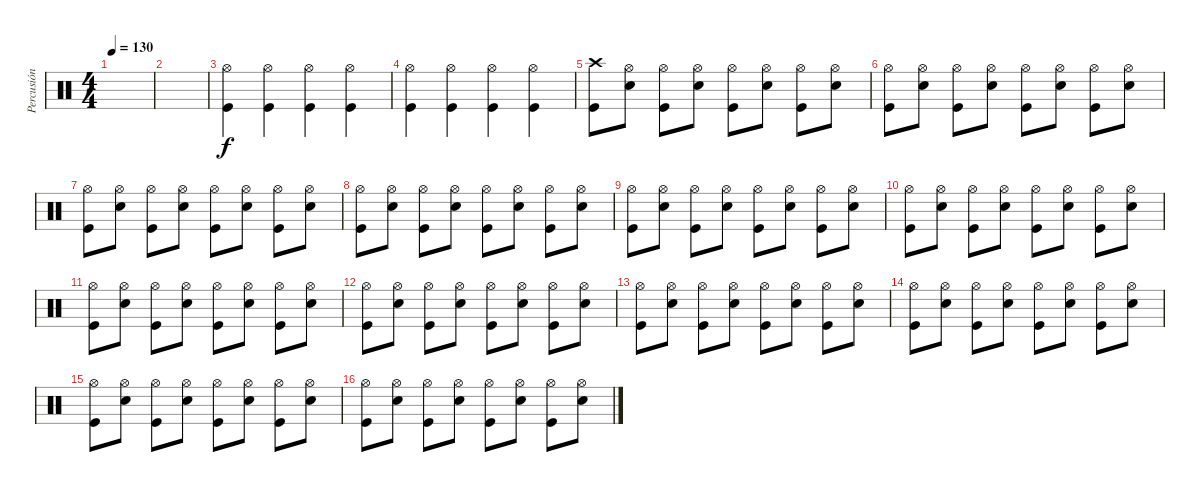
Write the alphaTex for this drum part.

\track ("Percusión" "Percusión") {instrument percussion}
\staff {score}
\articulation defaults
\ts (4 4)
\tempo 130
\clef neutral
\ks c
|
|
("Hi-Hat (open)" "Kick (hit)").4 ("Hi-Hat (open)" "Kick (hit)").4 ("Hi-Hat (open)" "Kick (hit)").4 ("Hi-Hat (open)" "Kick (hit)").4 |
("Hi-Hat (open)" "Kick (hit)").4 ("Hi-Hat (open)" "Kick (hit)").4 ("Hi-Hat (open)" "Kick (hit)").4 ("Hi-Hat (open)" "Kick (hit)").4 |
("Crash high (hit)" "Kick (hit)").8 ("Hi-Hat (open)" "Electric Snare (hit)").8 ("Hi-Hat (open)" "Kick (hit)").8 ("Hi-Hat (open)" "Electric Snare (hit)").8 ("Hi-Hat (open)" "Kick (hit)").8 ("Hi-Hat (open)" "Electric Snare (hit)").8 ("Hi-Hat (open)" "Kick (hit)").8 ("Hi-Hat (open)" "Electric Snare (hit)").8 |
("Hi-Hat (open)" "Kick (hit)").8 ("Hi-Hat (open)" "Electric Snare (hit)").8 ("Hi-Hat (open)" "Kick (hit)").8 ("Hi-Hat (open)" "Electric Snare (hit)").8 ("Hi-Hat (open)" "Kick (hit)").8 ("Hi-Hat (open)" "Electric Snare (hit)").8 ("Hi-Hat (open)" "Kick (hit)").8 ("Hi-Hat (open)" "Electric Snare (hit)").8 |
("Hi-Hat (open)" "Kick (hit)").8 ("Hi-Hat (open)" "Electric Snare (hit)").8 ("Hi-Hat (open)" "Kick (hit)").8 ("Hi-Hat (open)" "Electric Snare (hit)").8 ("Hi-Hat (open)" "Kick (hit)").8 ("Hi-Hat (open)" "Electric Snare (hit)").8 ("Hi-Hat (open)" "Kick (hit)").8 ("Hi-Hat (open)" "Electric Snare (hit)").8 |
("Hi-Hat (open)" "Kick (hit)").8 ("Hi-Hat (open)" "Electric Snare (hit)").8 ("Hi-Hat (open)" "Kick (hit)").8 ("Hi-Hat (open)" "Electric Snare (hit)").8 ("Hi-Hat (open)" "Kick (hit)").8 ("Hi-Hat (open)" "Electric Snare (hit)").8 ("Hi-Hat (open)" "Kick (hit)").8 ("Hi-Hat (open)" "Electric Snare (hit)").8 |
("Hi-Hat (open)" "Kick (hit)").8 ("Hi-Hat (open)" "Electric Snare (hit)").8 ("Hi-Hat (open)" "Kick (hit)").8 ("Hi-Hat (open)" "Electric Snare (hit)").8 ("Hi-Hat (open)" "Kick (hit)").8 ("Hi-Hat (open)" "Electric Snare (hit)").8 ("Hi-Hat (open)" "Kick (hit)").8 ("Hi-Hat (open)" "Electric Snare (hit)").8 |
("Hi-Hat (open)" "Kick (hit)").8 ("Hi-Hat (open)" "Electric Snare (hit)").8 ("Hi-Hat (open)" "Kick (hit)").8 ("Hi-Hat (open)" "Electric Snare (hit)").8 ("Hi-Hat (open)" "Kick (hit)").8 ("Hi-Hat (open)" "Electric Snare (hit)").8 ("Hi-Hat (open)" "Kick (hit)").8 ("Hi-Hat (open)" "Electric Snare (hit)").8 |
("Hi-Hat (open)" "Kick (hit)").8 ("Hi-Hat (open)" "Electric Snare (hit)").8 ("Hi-Hat (open)" "Kick (hit)").8 ("Hi-Hat (open)" "Electric Snare (hit)").8 ("Hi-Hat (open)" "Kick (hit)").8 ("Hi-Hat (open)" "Electric Snare (hit)").8 ("Hi-Hat (open)" "Kick (hit)").8 ("Hi-Hat (open)" "Electric Snare (hit)").8 |
("Hi-Hat (open)" "Kick (hit)").8 ("Hi-Hat (open)" "Electric Snare (hit)").8 ("Hi-Hat (open)" "Kick (hit)").8 ("Hi-Hat (open)" "Electric Snare (hit)").8 ("Hi-Hat (open)" "Kick (hit)").8 ("Hi-Hat (open)" "Electric Snare (hit)").8 ("Hi-Hat (open)" "Kick (hit)").8 ("Hi-Hat (open)" "Electric Snare (hit)").8 |
("Hi-Hat (open)" "Kick (hit)").8 ("Hi-Hat (open)" "Electric Snare (hit)").8 ("Hi-Hat (open)" "Kick (hit)").8 ("Hi-Hat (open)" "Electric Snare (hit)").8 ("Hi-Hat (open)" "Kick (hit)").8 ("Hi-Hat (open)" "Electric Snare (hit)").8 ("Hi-Hat (open)" "Kick (hit)").8 ("Hi-Hat (open)" "Electric Snare (hit)").8 |
("Hi-Hat (open)" "Kick (hit)").8 ("Hi-Hat (open)" "Electric Snare (hit)").8 ("Hi-Hat (open)" "Kick (hit)").8 ("Hi-Hat (open)" "Electric Snare (hit)").8 ("Hi-Hat (open)" "Kick (hit)").8 ("Hi-Hat (open)" "Electric Snare (hit)").8 ("Hi-Hat (open)" "Kick (hit)").8 ("Hi-Hat (open)" "Electric Snare (hit)").8 |
("Hi-Hat (open)" "Kick (hit)").8 ("Hi-Hat (open)" "Electric Snare (hit)").8 ("Hi-Hat (open)" "Kick (hit)").8 ("Hi-Hat (open)" "Electric Snare (hit)").8 ("Hi-Hat (open)" "Kick (hit)").8 ("Hi-Hat (open)" "Electric Snare (hit)").8 ("Hi-Hat (open)" "Kick (hit)").8 ("Hi-Hat (open)" "Electric Snare (hit)").8 |
("Hi-Hat (open)" "Kick (hit)").8 ("Hi-Hat (open)" "Electric Snare (hit)").8 ("Hi-Hat (open)" "Kick (hit)").8 ("Hi-Hat (open)" "Electric Snare (hit)").8 ("Hi-Hat (open)" "Kick (hit)").8 ("Hi-Hat (open)" "Electric Snare (hit)").8 ("Hi-Hat (open)" "Kick (hit)").8 ("Hi-Hat (open)" "Electric Snare (hit)").8
